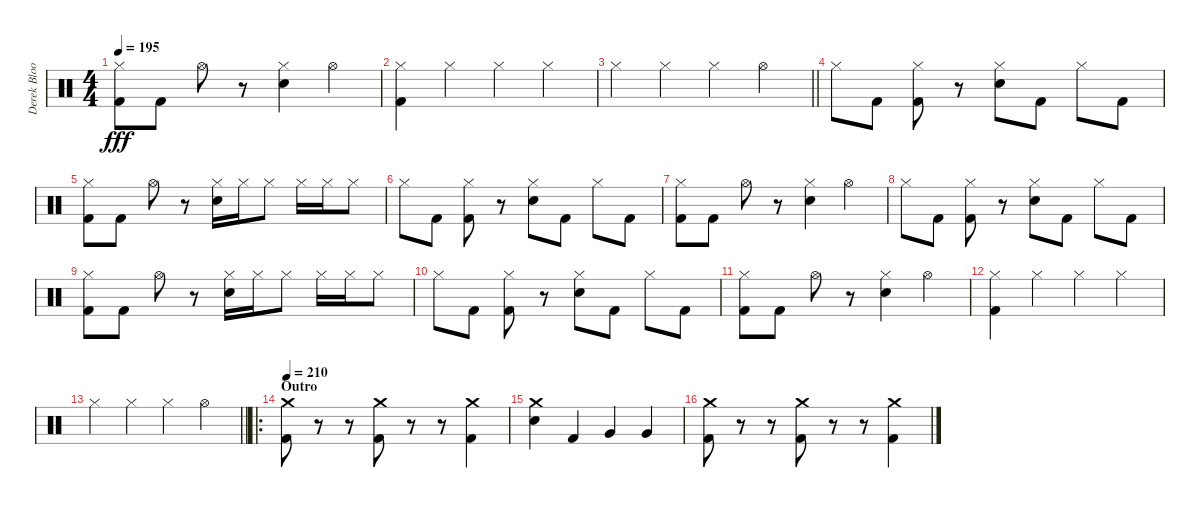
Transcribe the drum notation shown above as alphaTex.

\track ("Derek Bloom" "Derek Bloo") {instrument percussion}
\staff {score}
\articulation defaults
\ts (4 4)
\tempo 195
\clef neutral
\ks c
("Hi-Hat (closed)" "Kick (hit) 2").8{dy fff} "Kick (hit) 2".8 "Hi-Hat (open)".8 r.8 ("Hi-Hat (closed)" "Electric Snare (hit)").4 "Hi-Hat (open)".4 |
("Hi-Hat (closed)" "Kick (hit) 2").4 "Hi-Hat (closed)".4 "Hi-Hat (closed)".4 "Hi-Hat (closed)".4 |
\barLineRight lightlight "Hi-Hat (closed)".4 "Hi-Hat (closed)".4 "Hi-Hat (closed)".4 "Hi-Hat (open)".4
|
"Hi-Hat (closed)".8 "Kick (hit) 2".8 ("Hi-Hat (closed)" "Kick (hit) 2").8 r.8 ("Hi-Hat (closed)" "Electric Snare (hit)").8 "Kick (hit) 2".8 "Hi-Hat (closed)".8 "Kick (hit) 2".8 |
("Hi-Hat (closed)" "Kick (hit) 2").8 "Kick (hit) 2".8 "Hi-Hat (open)".8 r.8 ("Hi-Hat (closed)" "Electric Snare (hit)").16 "Hi-Hat (closed)".16 "Hi-Hat (closed)".8 "Hi-Hat (closed)".16 "Hi-Hat (closed)".16 "Hi-Hat (closed)".8 |
"Hi-Hat (closed)".8 "Kick (hit) 2".8 ("Hi-Hat (closed)" "Kick (hit) 2").8 r.8 ("Hi-Hat (closed)" "Electric Snare (hit)").8 "Kick (hit) 2".8 "Hi-Hat (closed)".8 "Kick (hit) 2".8 |
("Hi-Hat (closed)" "Kick (hit) 2").8 "Kick (hit) 2".8 "Hi-Hat (open)".8 r.8 ("Hi-Hat (closed)" "Electric Snare (hit)").4 "Hi-Hat (open)".4 |
"Hi-Hat (closed)".8 "Kick (hit) 2".8 ("Hi-Hat (closed)" "Kick (hit) 2").8 r.8 ("Hi-Hat (closed)" "Electric Snare (hit)").8 "Kick (hit) 2".8 "Hi-Hat (closed)".8 "Kick (hit) 2".8 |
("Hi-Hat (closed)" "Kick (hit) 2").8 "Kick (hit) 2".8 "Hi-Hat (open)".8 r.8 ("Hi-Hat (closed)" "Electric Snare (hit)").16 "Hi-Hat (closed)".16 "Hi-Hat (closed)".8 "Hi-Hat (closed)".16 "Hi-Hat (closed)".16 "Hi-Hat (closed)".8 |
"Hi-Hat (closed)".8 "Kick (hit) 2".8 ("Hi-Hat (closed)" "Kick (hit) 2").8 r.8 ("Hi-Hat (closed)" "Electric Snare (hit)").8 "Kick (hit) 2".8 "Hi-Hat (closed)".8 "Kick (hit) 2".8 |
("Hi-Hat (closed)" "Kick (hit) 2").8 "Kick (hit) 2".8 "Hi-Hat (open)".8 r.8 ("Hi-Hat (closed)" "Electric Snare (hit)").4 "Hi-Hat (open)".4 |
("Hi-Hat (closed)" "Kick (hit) 2").4 "Hi-Hat (closed)".4 "Hi-Hat (closed)".4 "Hi-Hat (closed)".4 |
\barLineRight lightlight "Hi-Hat (closed)".4 "Hi-Hat (closed)".4 "Hi-Hat (closed)".4 "Hi-Hat (open)".4
|
\ro
\section ("" "Outro")
\tempo 210
("Crash medium (hit)" "Kick (hit) 2").8 r.8 r.8 ("Crash medium (hit)" "Kick (hit) 2").8 r.8 r.8 ("Crash medium (hit)" "Kick (hit) 2").4 |
("Crash medium (hit)" "Electric Snare (hit)").4 "Kick (hit) 2".4 "Very Low Tom (hit)".4 "Very Low Tom (hit)".4 |
("Crash medium (hit)" "Kick (hit) 2").8 r.8 r.8 ("Crash medium (hit)" "Kick (hit) 2").8 r.8 r.8 ("Crash medium (hit)" "Kick (hit) 2").4
